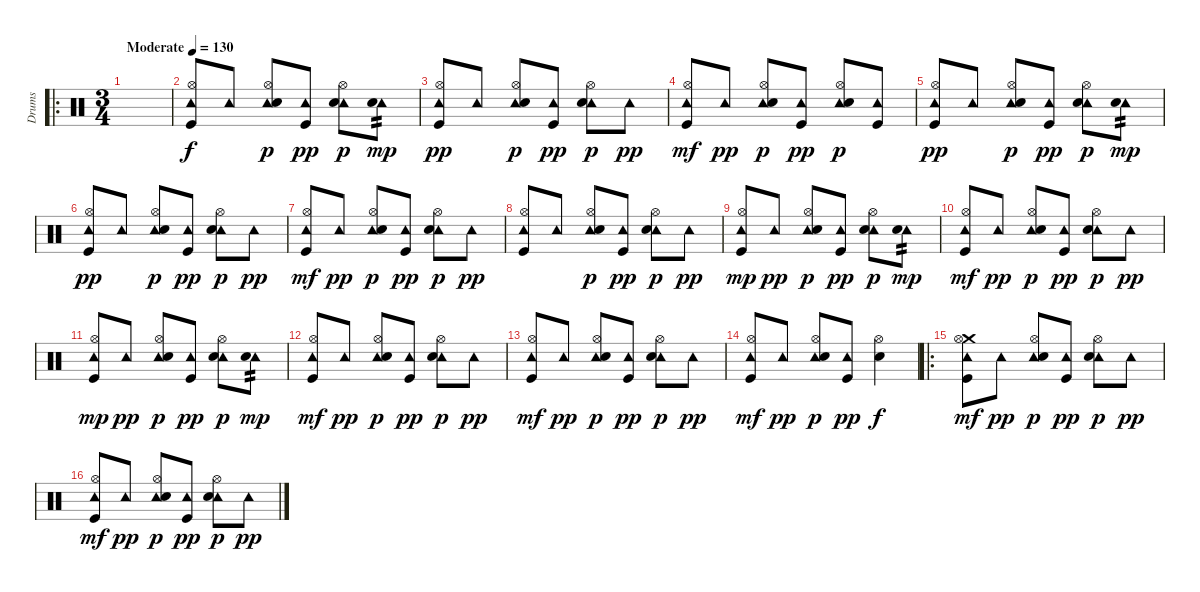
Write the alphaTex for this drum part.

\track ("Drums" "Drums") {instrument percussion}
\staff {score}
\articulation defaults
\ro
\ts (3 4)
\tempo (130 "Moderate")
\clef neutral
\ks c
|
("Tambourine (hit)" "Hi-Hat (open)" "Kick (hit)").8 "Tambourine (hit)".8 ("Tambourine (hit)" "Hi-Hat (open)" "Snare (hit) 2").8{dy p} ("Tambourine (hit)" "Kick (hit)").8{dy pp} ("Tambourine (hit)" "Hi-Hat (open)" "Snare (hit) 2").8{dy p} ("Tambourine (hit)" "Snare (hit) 2").8{tp 2 dy mp} |
("Tambourine (hit)" "Hi-Hat (open)" "Kick (hit)").8{dy pp} "Tambourine (hit)".8 ("Tambourine (hit)" "Hi-Hat (open)" "Snare (hit) 2").8{dy p} ("Tambourine (hit)" "Kick (hit)").8{dy pp} ("Tambourine (hit)" "Hi-Hat (open)" "Snare (hit) 2").8{dy p} "Tambourine (hit)".8{dy pp} |
("Tambourine (hit)" "Hi-Hat (open)" "Kick (hit)").8{dy mf} "Tambourine (hit)".8{dy pp} ("Tambourine (hit)" "Hi-Hat (open)" "Snare (hit) 2").8{dy p} ("Tambourine (hit)" "Kick (hit)").8{dy pp} ("Tambourine (hit)" "Hi-Hat (open)" "Snare (hit) 2").8{dy p} ("Tambourine (hit)" "Kick (hit)").8 |
("Tambourine (hit)" "Hi-Hat (open)" "Kick (hit)").8{dy pp} "Tambourine (hit)".8 ("Tambourine (hit)" "Hi-Hat (open)" "Snare (hit) 2").8{dy p} ("Tambourine (hit)" "Kick (hit)").8{dy pp} ("Tambourine (hit)" "Hi-Hat (open)" "Snare (hit) 2").8{dy p} ("Tambourine (hit)" "Snare (hit) 2").8{tp 2 dy mp} |
("Tambourine (hit)" "Hi-Hat (open)" "Kick (hit)").8{dy pp} "Tambourine (hit)".8 ("Tambourine (hit)" "Hi-Hat (open)" "Snare (hit) 2").8{dy p} ("Tambourine (hit)" "Kick (hit)").8{dy pp} ("Tambourine (hit)" "Hi-Hat (open)" "Snare (hit) 2").8{dy p} "Tambourine (hit)".8{dy pp} |
("Tambourine (hit)" "Hi-Hat (open)" "Kick (hit)").8{dy mf} "Tambourine (hit)".8{dy pp} ("Tambourine (hit)" "Hi-Hat (open)" "Snare (hit) 2").8{dy p} ("Tambourine (hit)" "Kick (hit)").8{dy pp} ("Tambourine (hit)" "Hi-Hat (open)" "Snare (hit) 2").8{dy p} "Tambourine (hit)".8{dy pp} |
("Tambourine (hit)" "Hi-Hat (open)" "Kick (hit)").8 "Tambourine (hit)".8 ("Tambourine (hit)" "Hi-Hat (open)" "Snare (hit) 2").8{dy p} ("Tambourine (hit)" "Kick (hit)").8{dy pp} ("Tambourine (hit)" "Hi-Hat (open)" "Snare (hit) 2").8{dy p} "Tambourine (hit)".8{dy pp} |
("Tambourine (hit)" "Hi-Hat (open)" "Kick (hit)").8{dy mp} "Tambourine (hit)".8{dy pp} ("Tambourine (hit)" "Hi-Hat (open)" "Snare (hit) 2").8{dy p} ("Tambourine (hit)" "Kick (hit)").8{dy pp} ("Tambourine (hit)" "Hi-Hat (open)" "Snare (hit) 2").8{dy p} ("Tambourine (hit)" "Snare (hit) 2").8{tp 2 dy mp} |
("Tambourine (hit)" "Hi-Hat (open)" "Kick (hit)").8{dy mf} "Tambourine (hit)".8{dy pp} ("Tambourine (hit)" "Hi-Hat (open)" "Snare (hit) 2").8{dy p} ("Tambourine (hit)" "Kick (hit)").8{dy pp} ("Tambourine (hit)" "Hi-Hat (open)" "Snare (hit) 2").8{dy p} "Tambourine (hit)".8{dy pp} |
("Tambourine (hit)" "Hi-Hat (open)" "Kick (hit)").8{dy mp} "Tambourine (hit)".8{dy pp} ("Tambourine (hit)" "Hi-Hat (open)" "Snare (hit) 2").8{dy p} ("Tambourine (hit)" "Kick (hit)").8{dy pp} ("Tambourine (hit)" "Hi-Hat (open)" "Snare (hit) 2").8{dy p} ("Tambourine (hit)" "Snare (hit) 2").8{tp 2 dy mp} |
("Tambourine (hit)" "Hi-Hat (open)" "Kick (hit)").8{dy mf} "Tambourine (hit)".8{dy pp} ("Tambourine (hit)" "Hi-Hat (open)" "Snare (hit) 2").8{dy p} ("Tambourine (hit)" "Kick (hit)").8{dy pp} ("Tambourine (hit)" "Hi-Hat (open)" "Snare (hit) 2").8{dy p} "Tambourine (hit)".8{dy pp} |
("Tambourine (hit)" "Hi-Hat (open)" "Kick (hit)").8{dy mf} "Tambourine (hit)".8{dy pp} ("Tambourine (hit)" "Hi-Hat (open)" "Snare (hit) 2").8{dy p} ("Tambourine (hit)" "Kick (hit)").8{dy pp} ("Tambourine (hit)" "Hi-Hat (open)" "Snare (hit) 2").8{dy p} "Tambourine (hit)".8{dy pp} |
("Tambourine (hit)" "Hi-Hat (open)" "Kick (hit)").8{dy mf} "Tambourine (hit)".8{dy pp} ("Tambourine (hit)" "Hi-Hat (open)" "Snare (hit) 2").8{dy p} ("Tambourine (hit)" "Kick (hit)").8{dy pp} ("Hi-Hat (open)" "Snare (hit) 2").4{dy f} |
\ro
("Crash medium (hit)" "Tambourine (hit)" "Hi-Hat (open)" "Kick (hit)").8{dy mf} "Tambourine (hit)".8{dy pp} ("Tambourine (hit)" "Hi-Hat (open)" "Snare (hit) 2").8{dy p} ("Tambourine (hit)" "Kick (hit)").8{dy pp} ("Tambourine (hit)" "Hi-Hat (open)" "Snare (hit) 2").8{dy p} "Tambourine (hit)".8{dy pp} |
("Tambourine (hit)" "Hi-Hat (open)" "Kick (hit)").8{dy mf} "Tambourine (hit)".8{dy pp} ("Tambourine (hit)" "Hi-Hat (open)" "Snare (hit) 2").8{dy p} ("Tambourine (hit)" "Kick (hit)").8{dy pp} ("Tambourine (hit)" "Hi-Hat (open)" "Snare (hit) 2").8{dy p} "Tambourine (hit)".8{dy pp}
